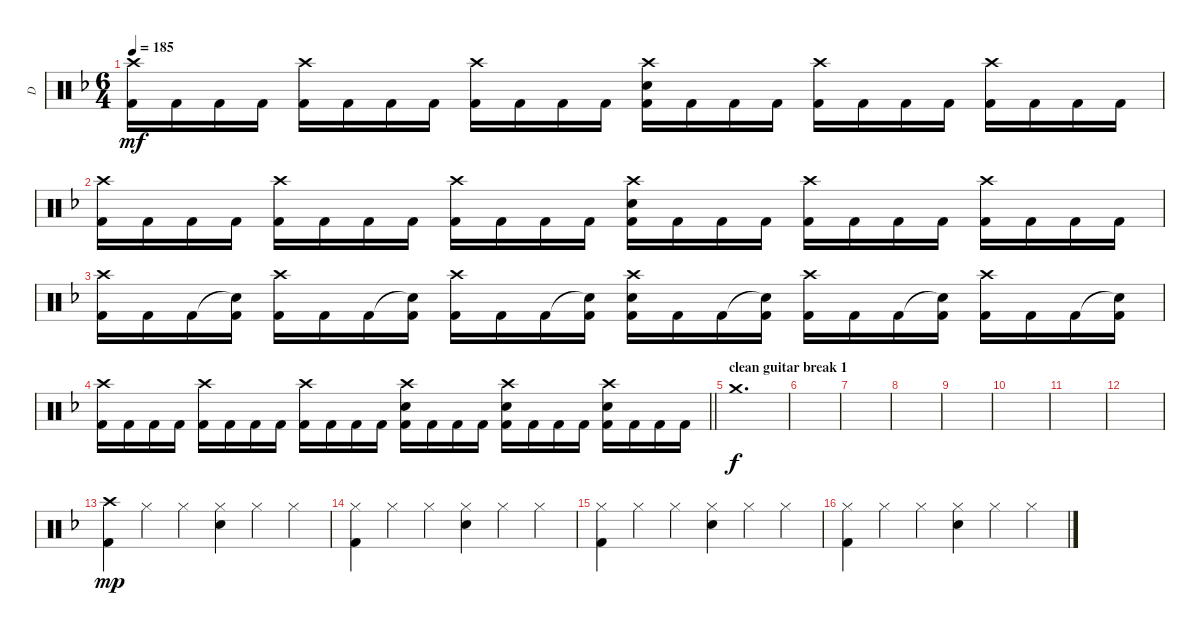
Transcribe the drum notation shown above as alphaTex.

\track ("D" "D") {instrument percussion}
\staff {score}
\articulation defaults
\ts (6 4)
\tempo 185
\clef neutral
\ks dminor
("Crash high (hit)" "Kick (hit) 2").16{dy mf} "Kick (hit) 2".16 "Kick (hit) 2".16 "Kick (hit) 2".16 ("Crash high (hit)" "Kick (hit) 2").16 "Kick (hit) 2".16 "Kick (hit) 2".16 "Kick (hit) 2".16 ("Crash high (hit)" "Kick (hit) 2").16 "Kick (hit) 2".16 "Kick (hit) 2".16 "Kick (hit) 2".16 ("Crash high (hit)" "Snare (hit) 2" "Kick (hit) 2").16 "Kick (hit) 2".16 "Kick (hit) 2".16 "Kick (hit) 2".16 ("Crash high (hit)" "Kick (hit) 2").16 "Kick (hit) 2".16 "Kick (hit) 2".16 "Kick (hit) 2".16 ("Crash high (hit)" "Kick (hit) 2").16 "Kick (hit) 2".16 "Kick (hit) 2".16 "Kick (hit) 2".16 |
("Crash high (hit)" "Kick (hit) 2").16 "Kick (hit) 2".16 "Kick (hit) 2".16 "Kick (hit) 2".16 ("Crash high (hit)" "Kick (hit) 2").16 "Kick (hit) 2".16 "Kick (hit) 2".16 "Kick (hit) 2".16 ("Crash high (hit)" "Kick (hit) 2").16 "Kick (hit) 2".16 "Kick (hit) 2".16 "Kick (hit) 2".16 ("Crash high (hit)" "Snare (hit) 2" "Kick (hit) 2").16 "Kick (hit) 2".16 "Kick (hit) 2".16 "Kick (hit) 2".16 ("Crash high (hit)" "Kick (hit) 2").16 "Kick (hit) 2".16 "Kick (hit) 2".16 "Kick (hit) 2".16 ("Crash high (hit)" "Kick (hit) 2").16 "Kick (hit) 2".16 "Kick (hit) 2".16 "Kick (hit) 2".16 |
("Crash high (hit)" "Kick (hit) 2").16 "Kick (hit) 2".16 "Kick (hit) 2".16 ("Snare (hit)"{t} "Kick (hit) 2").16 ("Crash high (hit)" "Kick (hit) 2").16 "Kick (hit) 2".16 "Kick (hit) 2".16 ("Snare (hit)"{t} "Kick (hit) 2").16 ("Crash high (hit)" "Kick (hit) 2").16 "Kick (hit) 2".16 "Kick (hit) 2".16 ("Snare (hit)"{t} "Kick (hit) 2").16 ("Crash high (hit)" "Snare (hit) 2" "Kick (hit) 2").16 "Kick (hit) 2".16 "Kick (hit) 2".16 ("Snare (hit)"{t} "Kick (hit) 2").16 ("Crash high (hit)" "Kick (hit) 2").16 "Kick (hit) 2".16 "Kick (hit) 2".16 ("Snare (hit)"{t} "Kick (hit) 2").16 ("Crash high (hit)" "Kick (hit) 2").16 "Kick (hit) 2".16 "Kick (hit) 2".16 ("Snare (hit)"{t} "Kick (hit) 2").16 |
\barLineRight lightlight
("Crash high (hit)" "Kick (hit) 2").16 "Kick (hit) 2".16 "Kick (hit) 2".16 "Kick (hit) 2".16 ("Crash high (hit)" "Kick (hit) 2").16 "Kick (hit) 2".16 "Kick (hit) 2".16 "Kick (hit) 2".16 ("Crash high (hit)" "Kick (hit) 2").16 "Kick (hit) 2".16 "Kick (hit) 2".16 "Kick (hit) 2".16 ("Crash high (hit)" "Snare (hit) 2" "Kick (hit) 2").16 "Kick (hit) 2".16 "Kick (hit) 2".16 "Kick (hit) 2".16 ("Crash high (hit)" "Snare (hit) 2" "Kick (hit) 2").16 "Kick (hit) 2".16 "Kick (hit) 2".16 "Kick (hit) 2".16 ("Crash high (hit)" "Snare (hit) 2" "Kick (hit) 2").16 "Kick (hit) 2".16 "Kick (hit) 2".16 "Kick (hit) 2".16 |
\section ("" "clean guitar break 1")
"Crash medium (hit)".1{d dy f} |
|
|
|
|
|
|
|
("Crash high (hit)" "Kick (hit) 2").4{dy mp} "Hi-Hat (closed)".4 "Hi-Hat (closed)".4 ("Hi-Hat (closed)" "Snare (hit) 2").4 "Hi-Hat (closed)".4 "Hi-Hat (closed)".4 |
("Hi-Hat (closed)" "Kick (hit) 2").4 "Hi-Hat (closed)".4 "Hi-Hat (closed)".4 ("Hi-Hat (closed)" "Snare (hit) 2").4 "Hi-Hat (closed)".4 "Hi-Hat (closed)".4 |
("Hi-Hat (closed)" "Kick (hit) 2").4 "Hi-Hat (closed)".4 "Hi-Hat (closed)".4 ("Hi-Hat (closed)" "Snare (hit) 2").4 "Hi-Hat (closed)".4 "Hi-Hat (closed)".4 |
("Hi-Hat (closed)" "Kick (hit) 2").4 "Hi-Hat (closed)".4 "Hi-Hat (closed)".4 ("Hi-Hat (closed)" "Snare (hit) 2").4 "Hi-Hat (closed)".4 "Hi-Hat (closed)".4
